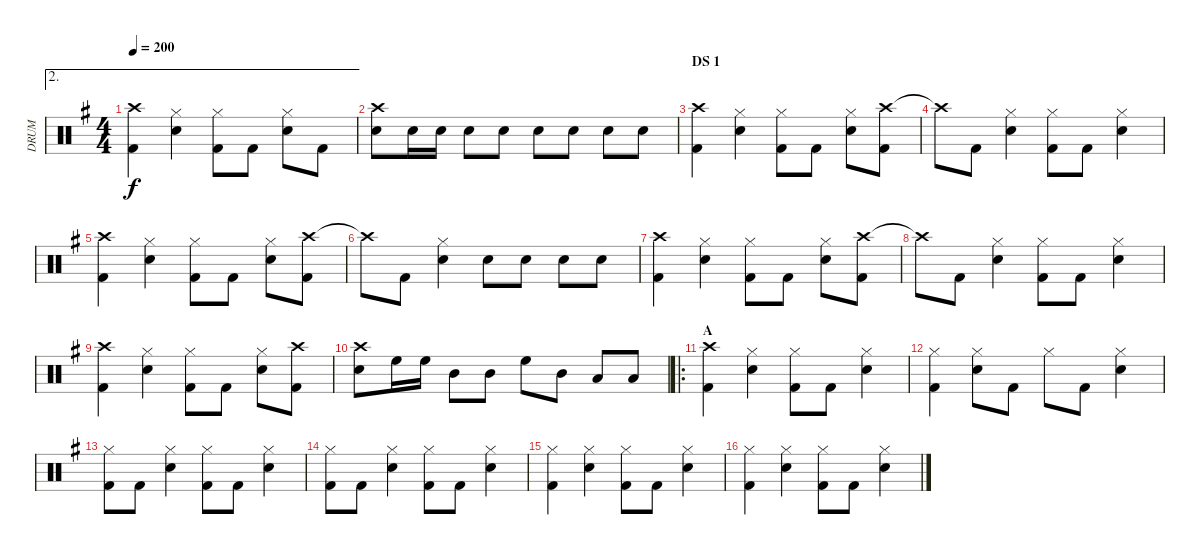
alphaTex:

\track ("DRUM" "DRUM") {instrument percussion}
\staff {score}
\articulation defaults
\ae 2
\ts (4 4)
\tempo 200
\clef neutral
\ks eminor
("Crash high (hit)" "Kick (hit) 2").4{dy f} ("Hi-Hat (closed)" "Snare (hit) 2").4 ("Hi-Hat (closed)" "Kick (hit) 2").8 "Kick (hit) 2".8 ("Hi-Hat (closed)" "Snare (hit) 2").8 "Kick (hit) 2".8 |
("Crash high (hit)" "Snare (hit) 2").8 "Snare (hit) 2".16 "Snare (hit) 2".16 "Snare (hit) 2".8 "Snare (hit) 2".8 "Snare (hit) 2".8 "Snare (hit) 2".8 "Snare (hit) 2".8 "Snare (hit) 2".8 |
\section ("" "DS 1")
("Crash high (hit)" "Kick (hit) 2").4 ("Hi-Hat (closed)" "Snare (hit) 2").4 ("Hi-Hat (closed)" "Kick (hit) 2").8 "Kick (hit) 2".8 ("Hi-Hat (closed)" "Snare (hit) 2").8 ("Crash high (hit)" "Kick (hit) 2").8 |
"Crash high (hit)"{t}.8 "Kick (hit) 2".8 ("Hi-Hat (closed)" "Snare (hit) 2").4 ("Hi-Hat (closed)" "Kick (hit) 2").8 "Kick (hit) 2".8 ("Hi-Hat (closed)" "Snare (hit) 2").4 |
("Crash high (hit)" "Kick (hit) 2").4 ("Hi-Hat (closed)" "Snare (hit) 2").4 ("Hi-Hat (closed)" "Kick (hit) 2").8 "Kick (hit) 2".8 ("Hi-Hat (closed)" "Snare (hit) 2").8 ("Crash high (hit)" "Kick (hit) 2").8 |
"Crash high (hit)"{t}.8 "Kick (hit) 2".8 ("Hi-Hat (closed)" "Snare (hit) 2").4 "Snare (hit) 2".8 "Snare (hit) 2".8 "Snare (hit) 2".8 "Snare (hit) 2".8 |
("Crash high (hit)" "Kick (hit) 2").4 ("Hi-Hat (closed)" "Snare (hit) 2").4 ("Hi-Hat (closed)" "Kick (hit) 2").8 "Kick (hit) 2".8 ("Hi-Hat (closed)" "Snare (hit) 2").8 ("Crash high (hit)" "Kick (hit) 2").8 |
"Crash high (hit)"{t}.8 "Kick (hit) 2".8 ("Hi-Hat (closed)" "Snare (hit) 2").4 ("Hi-Hat (closed)" "Kick (hit) 2").8 "Kick (hit) 2".8 ("Hi-Hat (closed)" "Snare (hit) 2").4 |
("Crash high (hit)" "Kick (hit) 2").4 ("Hi-Hat (closed)" "Snare (hit) 2").4 ("Hi-Hat (closed)" "Kick (hit) 2").8 "Kick (hit) 2".8 ("Hi-Hat (closed)" "Snare (hit) 2").8 ("Crash high (hit)" "Kick (hit) 2").8 |
("Crash high (hit)" "Snare (hit) 2").8 "High Floor Tom (hit)".16 "High Floor Tom (hit)".16 "Mid Tom (hit)".8 "Mid Tom (hit)".8 "High Floor Tom (hit)".8 "Mid Tom (hit)".8 "Low Tom (hit)".8 "Low Floor Tom (hit)".8 |
\ro
\section ("" "A")
("Crash high (hit)" "Kick (hit) 2").4 ("Hi-Hat (closed)" "Snare (hit) 2").4 ("Hi-Hat (closed)" "Kick (hit) 2").8 "Kick (hit) 2".8 ("Hi-Hat (closed)" "Snare (hit) 2").4 |
("Hi-Hat (closed)" "Kick (hit) 2").4 ("Hi-Hat (closed)" "Snare (hit) 2").8 "Kick (hit) 2".8 "Hi-Hat (closed)".8 "Kick (hit) 2".8 ("Hi-Hat (closed)" "Snare (hit) 2").4 |
("Hi-Hat (closed)" "Kick (hit) 2").8 "Kick (hit) 2".8 ("Hi-Hat (closed)" "Snare (hit) 2").4 ("Hi-Hat (closed)" "Kick (hit) 2").8 "Kick (hit) 2".8 ("Hi-Hat (closed)" "Snare (hit) 2").4 |
("Hi-Hat (closed)" "Kick (hit) 2").8 "Kick (hit) 2".8 ("Hi-Hat (closed)" "Snare (hit) 2").4 ("Hi-Hat (closed)" "Kick (hit) 2").8 "Kick (hit) 2".8 ("Hi-Hat (closed)" "Snare (hit) 2").4 |
("Hi-Hat (closed)" "Kick (hit) 2").4 ("Hi-Hat (closed)" "Snare (hit) 2").4 ("Hi-Hat (closed)" "Kick (hit) 2").8 "Kick (hit) 2".8 ("Hi-Hat (closed)" "Snare (hit) 2").4 |
("Hi-Hat (closed)" "Kick (hit) 2").4 ("Hi-Hat (closed)" "Snare (hit) 2").4 ("Hi-Hat (closed)" "Kick (hit) 2").8 "Kick (hit) 2".8 ("Hi-Hat (closed)" "Snare (hit) 2").4
